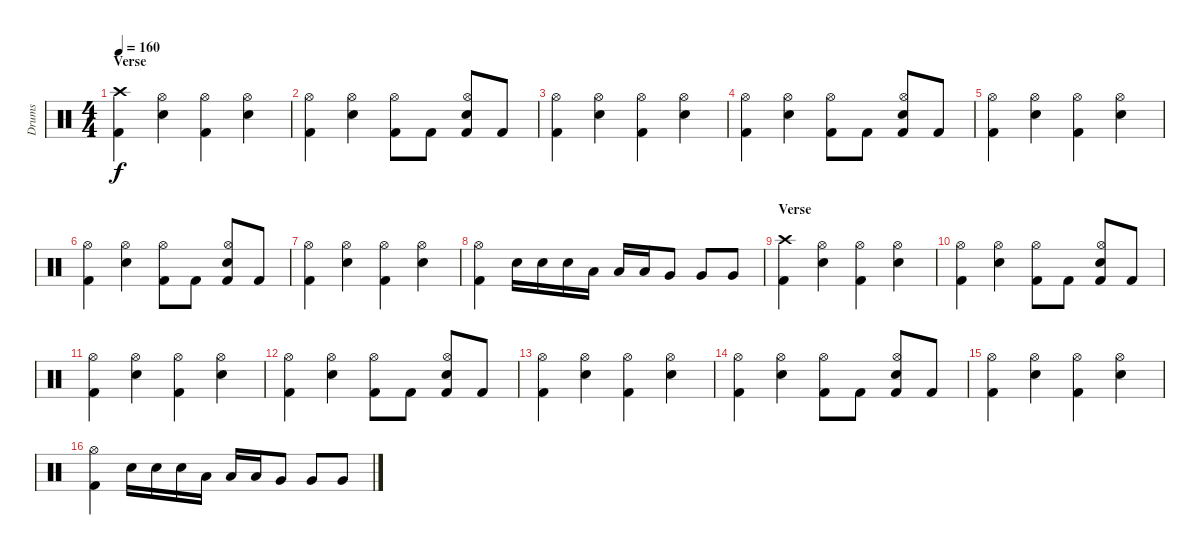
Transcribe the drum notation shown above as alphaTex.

\track ("Drums" "Drums") {instrument percussion}
\staff {score}
\articulation defaults
\ts (4 4)
\section ("" "Verse")
\tempo 160
\clef neutral
\ks c
("Crash high (hit)" "Kick (hit) 2").4{dy f} ("Hi-Hat (open)" "Snare (hit) 2").4 ("Hi-Hat (open)" "Kick (hit) 2").4 ("Hi-Hat (open)" "Snare (hit) 2").4 |
("Hi-Hat (open)" "Kick (hit) 2").4 ("Hi-Hat (open)" "Snare (hit) 2").4 ("Hi-Hat (open)" "Kick (hit) 2").8 "Kick (hit) 2".8 ("Hi-Hat (open)" "Snare (hit) 2" "Kick (hit) 2").8 "Kick (hit) 2".8 |
("Hi-Hat (open)" "Kick (hit) 2").4 ("Hi-Hat (open)" "Snare (hit) 2").4 ("Hi-Hat (open)" "Kick (hit) 2").4 ("Hi-Hat (open)" "Snare (hit) 2").4 |
("Hi-Hat (open)" "Kick (hit) 2").4 ("Hi-Hat (open)" "Snare (hit) 2").4 ("Hi-Hat (open)" "Kick (hit) 2").8 "Kick (hit) 2".8 ("Hi-Hat (open)" "Snare (hit) 2" "Kick (hit) 2").8 "Kick (hit) 2".8 |
("Hi-Hat (open)" "Kick (hit) 2").4 ("Hi-Hat (open)" "Snare (hit) 2").4 ("Hi-Hat (open)" "Kick (hit) 2").4 ("Hi-Hat (open)" "Snare (hit) 2").4 |
("Hi-Hat (open)" "Kick (hit) 2").4 ("Hi-Hat (open)" "Snare (hit) 2").4 ("Hi-Hat (open)" "Kick (hit) 2").8 "Kick (hit) 2".8 ("Hi-Hat (open)" "Snare (hit) 2" "Kick (hit) 2").8 "Kick (hit) 2".8 |
("Hi-Hat (open)" "Kick (hit) 2").4 ("Hi-Hat (open)" "Snare (hit) 2").4 ("Hi-Hat (open)" "Kick (hit) 2").4 ("Hi-Hat (open)" "Snare (hit) 2").4 |
("Hi-Hat (open)" "Kick (hit) 2").4 "Snare (hit) 2".16 "Snare (hit) 2".16 "Snare (hit) 2".16 "Low Tom (hit)".16 "Low Tom (hit)".16 "Low Tom (hit)".16 "Very Low Tom (hit)".8 "Very Low Tom (hit)".8 "Very Low Tom (hit)".8 |
\section ("" "Verse")
("Crash high (hit)" "Kick (hit) 2").4 ("Hi-Hat (open)" "Snare (hit) 2").4 ("Hi-Hat (open)" "Kick (hit) 2").4 ("Hi-Hat (open)" "Snare (hit) 2").4 |
("Hi-Hat (open)" "Kick (hit) 2").4 ("Hi-Hat (open)" "Snare (hit) 2").4 ("Hi-Hat (open)" "Kick (hit) 2").8 "Kick (hit) 2".8 ("Hi-Hat (open)" "Snare (hit) 2" "Kick (hit) 2").8 "Kick (hit) 2".8 |
("Hi-Hat (open)" "Kick (hit) 2").4 ("Hi-Hat (open)" "Snare (hit) 2").4 ("Hi-Hat (open)" "Kick (hit) 2").4 ("Hi-Hat (open)" "Snare (hit) 2").4 |
("Hi-Hat (open)" "Kick (hit) 2").4 ("Hi-Hat (open)" "Snare (hit) 2").4 ("Hi-Hat (open)" "Kick (hit) 2").8 "Kick (hit) 2".8 ("Hi-Hat (open)" "Snare (hit) 2" "Kick (hit) 2").8 "Kick (hit) 2".8 |
("Hi-Hat (open)" "Kick (hit) 2").4 ("Hi-Hat (open)" "Snare (hit) 2").4 ("Hi-Hat (open)" "Kick (hit) 2").4 ("Hi-Hat (open)" "Snare (hit) 2").4 |
("Hi-Hat (open)" "Kick (hit) 2").4 ("Hi-Hat (open)" "Snare (hit) 2").4 ("Hi-Hat (open)" "Kick (hit) 2").8 "Kick (hit) 2".8 ("Hi-Hat (open)" "Snare (hit) 2" "Kick (hit) 2").8 "Kick (hit) 2".8 |
("Hi-Hat (open)" "Kick (hit) 2").4 ("Hi-Hat (open)" "Snare (hit) 2").4 ("Hi-Hat (open)" "Kick (hit) 2").4 ("Hi-Hat (open)" "Snare (hit) 2").4 |
("Hi-Hat (open)" "Kick (hit) 2").4 "Snare (hit) 2".16 "Snare (hit) 2".16 "Snare (hit) 2".16 "Low Tom (hit)".16 "Low Tom (hit)".16 "Low Tom (hit)".16 "Very Low Tom (hit)".8 "Very Low Tom (hit)".8 "Very Low Tom (hit)".8
